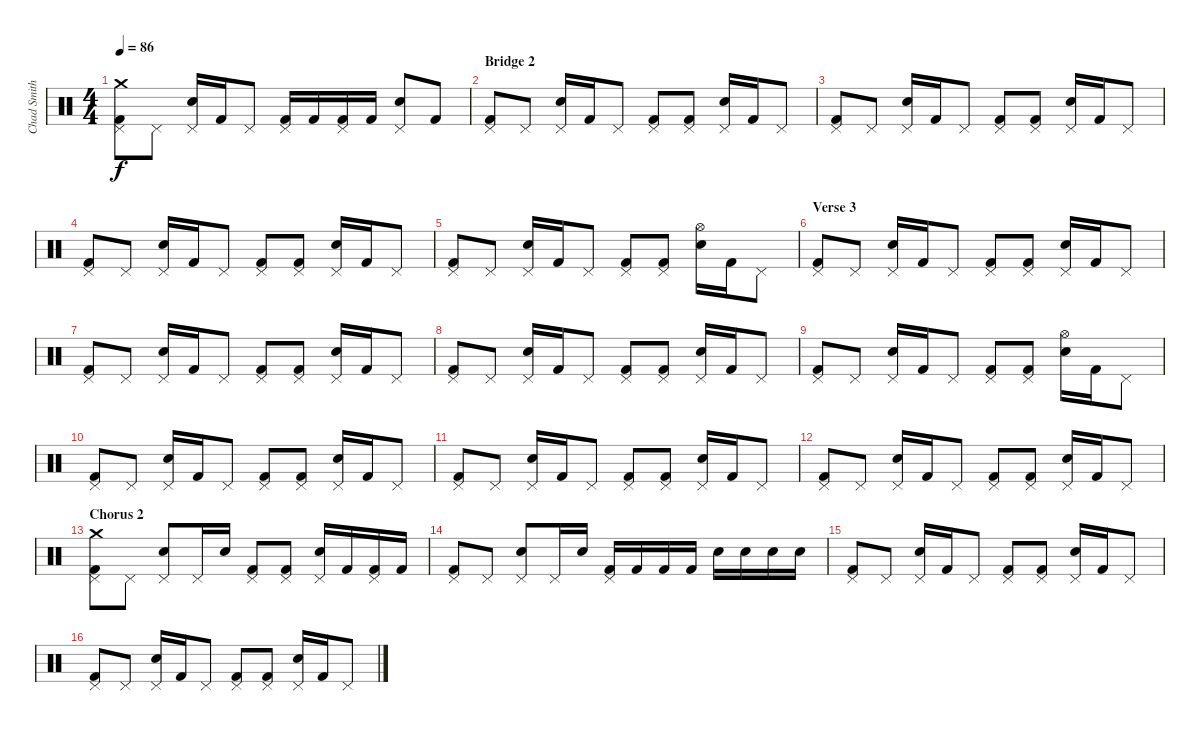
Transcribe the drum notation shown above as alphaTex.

\track ("Chad Smith (Percussions)" "Chad Smith") {instrument percussion}
\staff {score}
\articulation defaults
\ts (4 4)
\tempo 86
\clef neutral
\ks c
("Crash medium (hit)" "Pedal Hi-Hat (hit)" "Kick (hit) 2").8{dy f} "Pedal Hi-Hat (hit)".8 ("Pedal Hi-Hat (hit)" "Electric Snare (hit)").16 "Kick (hit) 2".16 "Pedal Hi-Hat (hit)".8 ("Pedal Hi-Hat (hit)" "Kick (hit) 2").16 "Kick (hit) 2".16 ("Pedal Hi-Hat (hit)" "Kick (hit) 2").16 "Kick (hit) 2".16 ("Pedal Hi-Hat (hit)" "Electric Snare (hit)").8 "Kick (hit) 2".8 |
\section ("" "Bridge 2")
("Pedal Hi-Hat (hit)" "Kick (hit) 2").8 "Pedal Hi-Hat (hit)".8 ("Pedal Hi-Hat (hit)" "Electric Snare (hit)").16 "Kick (hit) 2".16 "Pedal Hi-Hat (hit)".8 ("Pedal Hi-Hat (hit)" "Kick (hit) 2").8 ("Pedal Hi-Hat (hit)" "Kick (hit) 2").8 ("Pedal Hi-Hat (hit)" "Electric Snare (hit)").16 "Kick (hit) 2".16 "Pedal Hi-Hat (hit)".8 |
("Pedal Hi-Hat (hit)" "Kick (hit) 2").8 "Pedal Hi-Hat (hit)".8 ("Pedal Hi-Hat (hit)" "Electric Snare (hit)").16 "Kick (hit) 2".16 "Pedal Hi-Hat (hit)".8 ("Pedal Hi-Hat (hit)" "Kick (hit) 2").8 ("Pedal Hi-Hat (hit)" "Kick (hit) 2").8 ("Pedal Hi-Hat (hit)" "Electric Snare (hit)").16 "Kick (hit) 2".16 "Pedal Hi-Hat (hit)".8 |
("Pedal Hi-Hat (hit)" "Kick (hit) 2").8 "Pedal Hi-Hat (hit)".8 ("Pedal Hi-Hat (hit)" "Electric Snare (hit)").16 "Kick (hit) 2".16 "Pedal Hi-Hat (hit)".8 ("Pedal Hi-Hat (hit)" "Kick (hit) 2").8 ("Pedal Hi-Hat (hit)" "Kick (hit) 2").8 ("Pedal Hi-Hat (hit)" "Electric Snare (hit)").16 "Kick (hit) 2".16 "Pedal Hi-Hat (hit)".8 |
("Pedal Hi-Hat (hit)" "Kick (hit) 2").8 "Pedal Hi-Hat (hit)".8 ("Pedal Hi-Hat (hit)" "Electric Snare (hit)").16 "Kick (hit) 2".16 "Pedal Hi-Hat (hit)".8 ("Pedal Hi-Hat (hit)" "Kick (hit) 2").8 ("Pedal Hi-Hat (hit)" "Kick (hit) 2").8 ("Hi-Hat (open)" "Electric Snare (hit)").16 "Kick (hit) 2".16 "Pedal Hi-Hat (hit)".8 |
\section ("" "Verse 3")
("Pedal Hi-Hat (hit)" "Kick (hit) 2").8 "Pedal Hi-Hat (hit)".8 ("Pedal Hi-Hat (hit)" "Electric Snare (hit)").16 "Kick (hit) 2".16 "Pedal Hi-Hat (hit)".8 ("Pedal Hi-Hat (hit)" "Kick (hit) 2").8 ("Pedal Hi-Hat (hit)" "Kick (hit) 2").8 ("Pedal Hi-Hat (hit)" "Electric Snare (hit)").16 "Kick (hit) 2".16 "Pedal Hi-Hat (hit)".8 |
("Pedal Hi-Hat (hit)" "Kick (hit) 2").8 "Pedal Hi-Hat (hit)".8 ("Pedal Hi-Hat (hit)" "Electric Snare (hit)").16 "Kick (hit) 2".16 "Pedal Hi-Hat (hit)".8 ("Pedal Hi-Hat (hit)" "Kick (hit) 2").8 ("Pedal Hi-Hat (hit)" "Kick (hit) 2").8 ("Pedal Hi-Hat (hit)" "Electric Snare (hit)").16 "Kick (hit) 2".16 "Pedal Hi-Hat (hit)".8 |
("Pedal Hi-Hat (hit)" "Kick (hit) 2").8 "Pedal Hi-Hat (hit)".8 ("Pedal Hi-Hat (hit)" "Electric Snare (hit)").16 "Kick (hit) 2".16 "Pedal Hi-Hat (hit)".8 ("Pedal Hi-Hat (hit)" "Kick (hit) 2").8 ("Pedal Hi-Hat (hit)" "Kick (hit) 2").8 ("Pedal Hi-Hat (hit)" "Electric Snare (hit)").16 "Kick (hit) 2".16 "Pedal Hi-Hat (hit)".8 |
("Pedal Hi-Hat (hit)" "Kick (hit) 2").8 "Pedal Hi-Hat (hit)".8 ("Pedal Hi-Hat (hit)" "Electric Snare (hit)").16 "Kick (hit) 2".16 "Pedal Hi-Hat (hit)".8 ("Pedal Hi-Hat (hit)" "Kick (hit) 2").8 ("Pedal Hi-Hat (hit)" "Kick (hit) 2").8 ("Hi-Hat (open)" "Electric Snare (hit)").16 "Kick (hit) 2".16 "Pedal Hi-Hat (hit)".8 |
("Pedal Hi-Hat (hit)" "Kick (hit) 2").8 "Pedal Hi-Hat (hit)".8 ("Pedal Hi-Hat (hit)" "Electric Snare (hit)").16 "Kick (hit) 2".16 "Pedal Hi-Hat (hit)".8 ("Pedal Hi-Hat (hit)" "Kick (hit) 2").8 ("Pedal Hi-Hat (hit)" "Kick (hit) 2").8 ("Pedal Hi-Hat (hit)" "Electric Snare (hit)").16 "Kick (hit) 2".16 "Pedal Hi-Hat (hit)".8 |
("Pedal Hi-Hat (hit)" "Kick (hit) 2").8 "Pedal Hi-Hat (hit)".8 ("Pedal Hi-Hat (hit)" "Electric Snare (hit)").16 "Kick (hit) 2".16 "Pedal Hi-Hat (hit)".8 ("Pedal Hi-Hat (hit)" "Kick (hit) 2").8 ("Pedal Hi-Hat (hit)" "Kick (hit) 2").8 ("Pedal Hi-Hat (hit)" "Electric Snare (hit)").16 "Kick (hit) 2".16 "Pedal Hi-Hat (hit)".8 |
("Pedal Hi-Hat (hit)" "Kick (hit) 2").8 "Pedal Hi-Hat (hit)".8 ("Pedal Hi-Hat (hit)" "Electric Snare (hit)").16 "Kick (hit) 2".16 "Pedal Hi-Hat (hit)".8 ("Pedal Hi-Hat (hit)" "Kick (hit) 2").8 ("Pedal Hi-Hat (hit)" "Kick (hit) 2").8 ("Pedal Hi-Hat (hit)" "Electric Snare (hit)").16 "Kick (hit) 2".16 "Pedal Hi-Hat (hit)".8 |
\section ("" "Chorus 2")
("Crash medium (hit)" "Pedal Hi-Hat (hit)" "Kick (hit) 2").8 "Pedal Hi-Hat (hit)".8 ("Pedal Hi-Hat (hit)" "Electric Snare (hit)").8 "Pedal Hi-Hat (hit)".16 "Electric Snare (hit)".16 ("Pedal Hi-Hat (hit)" "Kick (hit) 2").8 ("Pedal Hi-Hat (hit)" "Kick (hit) 2").8 ("Pedal Hi-Hat (hit)" "Electric Snare (hit)").16 "Kick (hit) 2".16 ("Pedal Hi-Hat (hit)" "Kick (hit) 2").16 "Kick (hit) 2".16 |
("Pedal Hi-Hat (hit)" "Kick (hit) 2").8 "Pedal Hi-Hat (hit)".8 ("Pedal Hi-Hat (hit)" "Electric Snare (hit)").8 "Pedal Hi-Hat (hit)".16 "Electric Snare (hit)".16 ("Pedal Hi-Hat (hit)" "Kick (hit) 2").16 "Kick (hit) 2".16 "Kick (hit) 2".16 "Kick (hit) 2".16 "Electric Snare (hit)".16 "Electric Snare (hit)".16 "Electric Snare (hit)".16 "Electric Snare (hit)".16 |
("Pedal Hi-Hat (hit)" "Kick (hit) 2").8 "Pedal Hi-Hat (hit)".8 ("Pedal Hi-Hat (hit)" "Electric Snare (hit)").16 "Kick (hit) 2".16 "Pedal Hi-Hat (hit)".8 ("Pedal Hi-Hat (hit)" "Kick (hit) 2").8 ("Pedal Hi-Hat (hit)" "Kick (hit) 2").8 ("Pedal Hi-Hat (hit)" "Electric Snare (hit)").16 "Kick (hit) 2".16 "Pedal Hi-Hat (hit)".8 |
("Pedal Hi-Hat (hit)" "Kick (hit) 2").8 "Pedal Hi-Hat (hit)".8 ("Pedal Hi-Hat (hit)" "Electric Snare (hit)").16 "Kick (hit) 2".16 "Pedal Hi-Hat (hit)".8 ("Pedal Hi-Hat (hit)" "Kick (hit) 2").8 ("Pedal Hi-Hat (hit)" "Kick (hit) 2").8 ("Pedal Hi-Hat (hit)" "Electric Snare (hit)").16 "Kick (hit) 2".16 "Pedal Hi-Hat (hit)".8
